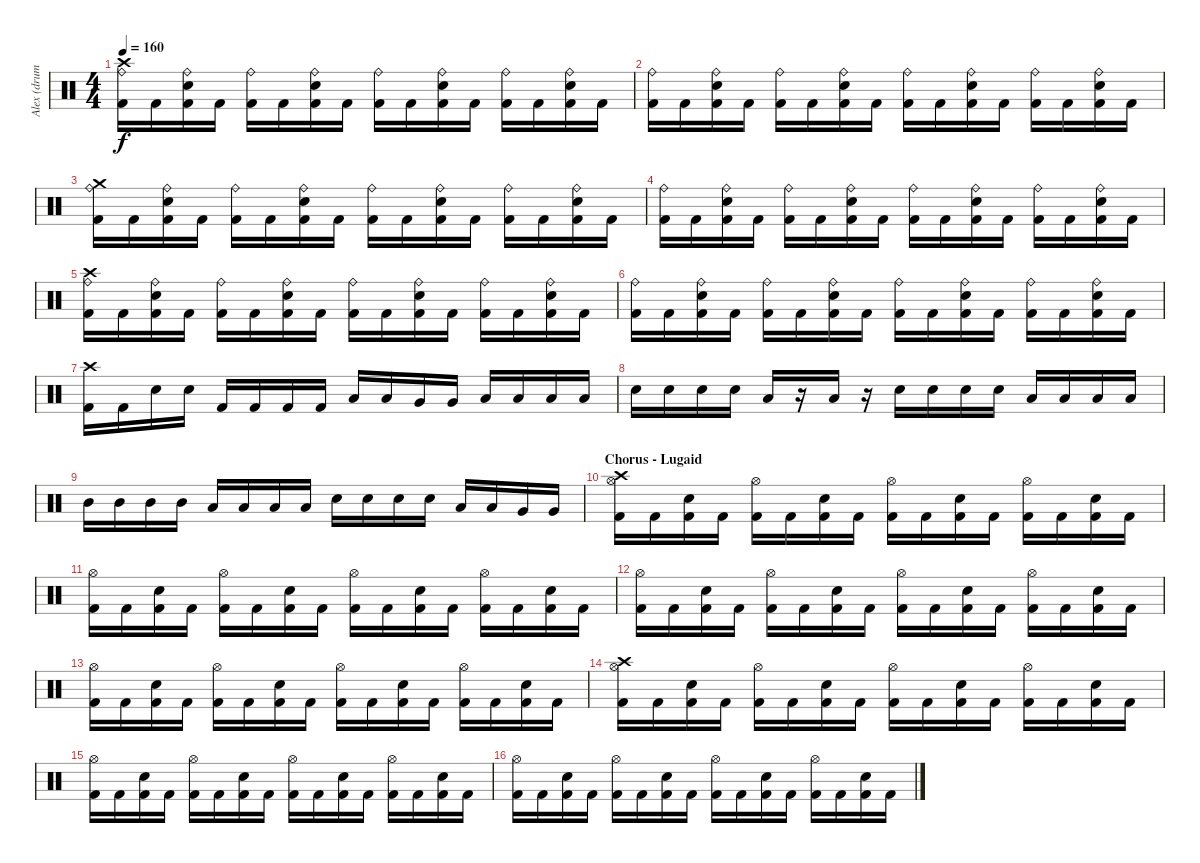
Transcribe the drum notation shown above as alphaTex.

\track ("Alex (drums)" "Alex (drum") {instrument percussion}
\staff {score}
\articulation defaults
\ts (4 4)
\tempo 160
\clef neutral
\ks c
("Ride (bell)" "Kick (hit) 2" "Crash high (hit)").16{dy f} "Kick (hit) 2".16 ("Ride (bell)" "Snare (hit) 2" "Kick (hit) 2").16 "Kick (hit) 2".16 ("Ride (bell)" "Kick (hit) 2").16 "Kick (hit) 2".16 ("Ride (bell)" "Snare (hit) 2" "Kick (hit) 2").16 "Kick (hit) 2".16 ("Ride (bell)" "Kick (hit) 2").16 "Kick (hit) 2".16 ("Ride (bell)" "Snare (hit) 2" "Kick (hit) 2").16 "Kick (hit) 2".16 ("Ride (bell)" "Kick (hit) 2").16 "Kick (hit) 2".16 ("Ride (bell)" "Snare (hit) 2" "Kick (hit) 2").16 "Kick (hit) 2".16 |
("Ride (bell)" "Kick (hit) 2").16 "Kick (hit) 2".16 ("Ride (bell)" "Snare (hit) 2" "Kick (hit) 2").16 "Kick (hit) 2".16 ("Ride (bell)" "Kick (hit) 2").16 "Kick (hit) 2".16 ("Ride (bell)" "Snare (hit) 2" "Kick (hit) 2").16 "Kick (hit) 2".16 ("Ride (bell)" "Kick (hit) 2").16 "Kick (hit) 2".16 ("Ride (bell)" "Snare (hit) 2" "Kick (hit) 2").16 "Kick (hit) 2".16 ("Ride (bell)" "Kick (hit) 2").16 "Kick (hit) 2".16 ("Ride (bell)" "Snare (hit) 2" "Kick (hit) 2").16 "Kick (hit) 2".16 |
("Ride (bell)" "Kick (hit) 2" "Crash medium (hit)").16 "Kick (hit) 2".16 ("Ride (bell)" "Snare (hit) 2" "Kick (hit) 2").16 "Kick (hit) 2".16 ("Ride (bell)" "Kick (hit) 2").16 "Kick (hit) 2".16 ("Ride (bell)" "Snare (hit) 2" "Kick (hit) 2").16 "Kick (hit) 2".16 ("Ride (bell)" "Kick (hit) 2").16 "Kick (hit) 2".16 ("Ride (bell)" "Snare (hit) 2" "Kick (hit) 2").16 "Kick (hit) 2".16 ("Ride (bell)" "Kick (hit) 2").16 "Kick (hit) 2".16 ("Ride (bell)" "Snare (hit) 2" "Kick (hit) 2").16 "Kick (hit) 2".16 |
("Ride (bell)" "Kick (hit) 2").16 "Kick (hit) 2".16 ("Ride (bell)" "Snare (hit) 2" "Kick (hit) 2").16 "Kick (hit) 2".16 ("Ride (bell)" "Kick (hit) 2").16 "Kick (hit) 2".16 ("Ride (bell)" "Snare (hit) 2" "Kick (hit) 2").16 "Kick (hit) 2".16 ("Ride (bell)" "Kick (hit) 2").16 "Kick (hit) 2".16 ("Ride (bell)" "Snare (hit) 2" "Kick (hit) 2").16 "Kick (hit) 2".16 ("Ride (bell)" "Kick (hit) 2").16 "Kick (hit) 2".16 ("Ride (bell)" "Snare (hit) 2" "Kick (hit) 2").16 "Kick (hit) 2".16 |
("Ride (bell)" "Kick (hit) 2" "Crash high (hit)").16 "Kick (hit) 2".16 ("Ride (bell)" "Snare (hit) 2" "Kick (hit) 2").16 "Kick (hit) 2".16 ("Ride (bell)" "Kick (hit) 2").16 "Kick (hit) 2".16 ("Ride (bell)" "Snare (hit) 2" "Kick (hit) 2").16 "Kick (hit) 2".16 ("Ride (bell)" "Kick (hit) 2").16 "Kick (hit) 2".16 ("Ride (bell)" "Snare (hit) 2" "Kick (hit) 2").16 "Kick (hit) 2".16 ("Ride (bell)" "Kick (hit) 2").16 "Kick (hit) 2".16 ("Ride (bell)" "Snare (hit) 2" "Kick (hit) 2").16 "Kick (hit) 2".16 |
("Ride (bell)" "Kick (hit) 2").16 "Kick (hit) 2".16 ("Ride (bell)" "Snare (hit) 2" "Kick (hit) 2").16 "Kick (hit) 2".16 ("Ride (bell)" "Kick (hit) 2").16 "Kick (hit) 2".16 ("Ride (bell)" "Snare (hit) 2" "Kick (hit) 2").16 "Kick (hit) 2".16 ("Ride (bell)" "Kick (hit) 2").16 "Kick (hit) 2".16 ("Ride (bell)" "Snare (hit) 2" "Kick (hit) 2").16 "Kick (hit) 2".16 ("Ride (bell)" "Kick (hit) 2").16 "Kick (hit) 2".16 ("Ride (bell)" "Snare (hit) 2" "Kick (hit) 2").16 "Kick (hit) 2".16 |
("Kick (hit) 2" "Crash high (hit)").16 "Kick (hit) 2".16 "Snare (hit) 2".16 "Snare (hit) 2".16 "Kick (hit) 2".16 "Kick (hit) 2".16 "Kick (hit) 2".16 "Kick (hit) 2".16 "Low Tom (hit)".16 "Low Tom (hit)".16 "Very Low Tom (hit)".16 "Very Low Tom (hit)".16 "Low Tom (hit)".16 "Low Tom (hit)".16 "Low Tom (hit)".16 "Low Tom (hit)".16 |
"Snare (hit) 2".16 "Snare (hit) 2".16 "Snare (hit) 2".16 "Snare (hit) 2".16 "Low Tom (hit)".16 r.16 "Low Tom (hit)".16 r.16 "Snare (hit) 2".16 "Snare (hit) 2".16 "Snare (hit) 2".16 "Snare (hit) 2".16 "Low Tom (hit)".16 "Low Tom (hit)".16 "Low Tom (hit)".16 "Low Tom (hit)".16 |
"Mid Tom (hit)".16 "Mid Tom (hit)".16 "Mid Tom (hit)".16 "Mid Tom (hit)".16 "Low Tom (hit)".16 "Low Tom (hit)".16 "Low Tom (hit)".16 "Low Tom (hit)".16 "Snare (hit) 2".16 "Snare (hit) 2".16 "Snare (hit) 2".16 "Snare (hit) 2".16 "Low Tom (hit)".16 "Low Tom (hit)".16 "Very Low Tom (hit)".16 "Very Low Tom (hit)".16 |
\section ("" "Chorus - Lugaid")
("Hi-Hat (open)" "Kick (hit) 2" "Crash high (hit)").16 "Kick (hit) 2".16 ("Snare (hit) 2" "Kick (hit) 2").16 "Kick (hit) 2".16 ("Hi-Hat (open)" "Kick (hit) 2").16 "Kick (hit) 2".16 ("Snare (hit) 2" "Kick (hit) 2").16 "Kick (hit) 2".16 ("Hi-Hat (open)" "Kick (hit) 2").16 "Kick (hit) 2".16 ("Snare (hit) 2" "Kick (hit) 2").16 "Kick (hit) 2".16 ("Hi-Hat (open)" "Kick (hit) 2").16 "Kick (hit) 2".16 ("Snare (hit) 2" "Kick (hit) 2").16 "Kick (hit) 2".16 |
("Hi-Hat (open)" "Kick (hit) 2").16 "Kick (hit) 2".16 ("Snare (hit) 2" "Kick (hit) 2").16 "Kick (hit) 2".16 ("Hi-Hat (open)" "Kick (hit) 2").16 "Kick (hit) 2".16 ("Snare (hit) 2" "Kick (hit) 2").16 "Kick (hit) 2".16 ("Hi-Hat (open)" "Kick (hit) 2").16 "Kick (hit) 2".16 ("Snare (hit) 2" "Kick (hit) 2").16 "Kick (hit) 2".16 ("Hi-Hat (open)" "Kick (hit) 2").16 "Kick (hit) 2".16 ("Snare (hit) 2" "Kick (hit) 2").16 "Kick (hit) 2".16 |
("Hi-Hat (open)" "Kick (hit) 2").16 "Kick (hit) 2".16 ("Snare (hit) 2" "Kick (hit) 2").16 "Kick (hit) 2".16 ("Hi-Hat (open)" "Kick (hit) 2").16 "Kick (hit) 2".16 ("Snare (hit) 2" "Kick (hit) 2").16 "Kick (hit) 2".16 ("Hi-Hat (open)" "Kick (hit) 2").16 "Kick (hit) 2".16 ("Snare (hit) 2" "Kick (hit) 2").16 "Kick (hit) 2".16 ("Hi-Hat (open)" "Kick (hit) 2").16 "Kick (hit) 2".16 ("Snare (hit) 2" "Kick (hit) 2").16 "Kick (hit) 2".16 |
("Hi-Hat (open)" "Kick (hit) 2").16 "Kick (hit) 2".16 ("Snare (hit) 2" "Kick (hit) 2").16 "Kick (hit) 2".16 ("Hi-Hat (open)" "Kick (hit) 2").16 "Kick (hit) 2".16 ("Snare (hit) 2" "Kick (hit) 2").16 "Kick (hit) 2".16 ("Hi-Hat (open)" "Kick (hit) 2").16 "Kick (hit) 2".16 ("Snare (hit) 2" "Kick (hit) 2").16 "Kick (hit) 2".16 ("Hi-Hat (open)" "Kick (hit) 2").16 "Kick (hit) 2".16 ("Snare (hit) 2" "Kick (hit) 2").16 "Kick (hit) 2".16 |
("Hi-Hat (open)" "Kick (hit) 2" "Crash high (hit)").16 "Kick (hit) 2".16 ("Snare (hit) 2" "Kick (hit) 2").16 "Kick (hit) 2".16 ("Hi-Hat (open)" "Kick (hit) 2").16 "Kick (hit) 2".16 ("Snare (hit) 2" "Kick (hit) 2").16 "Kick (hit) 2".16 ("Hi-Hat (open)" "Kick (hit) 2").16 "Kick (hit) 2".16 ("Snare (hit) 2" "Kick (hit) 2").16 "Kick (hit) 2".16 ("Hi-Hat (open)" "Kick (hit) 2").16 "Kick (hit) 2".16 ("Snare (hit) 2" "Kick (hit) 2").16 "Kick (hit) 2".16 |
("Hi-Hat (open)" "Kick (hit) 2").16 "Kick (hit) 2".16 ("Snare (hit) 2" "Kick (hit) 2").16 "Kick (hit) 2".16 ("Hi-Hat (open)" "Kick (hit) 2").16 "Kick (hit) 2".16 ("Snare (hit) 2" "Kick (hit) 2").16 "Kick (hit) 2".16 ("Hi-Hat (open)" "Kick (hit) 2").16 "Kick (hit) 2".16 ("Snare (hit) 2" "Kick (hit) 2").16 "Kick (hit) 2".16 ("Hi-Hat (open)" "Kick (hit) 2").16 "Kick (hit) 2".16 ("Snare (hit) 2" "Kick (hit) 2").16 "Kick (hit) 2".16 |
("Hi-Hat (open)" "Kick (hit) 2").16 "Kick (hit) 2".16 ("Snare (hit) 2" "Kick (hit) 2").16 "Kick (hit) 2".16 ("Hi-Hat (open)" "Kick (hit) 2").16 "Kick (hit) 2".16 ("Snare (hit) 2" "Kick (hit) 2").16 "Kick (hit) 2".16 ("Hi-Hat (open)" "Kick (hit) 2").16 "Kick (hit) 2".16 ("Snare (hit) 2" "Kick (hit) 2").16 "Kick (hit) 2".16 ("Hi-Hat (open)" "Kick (hit) 2").16 "Kick (hit) 2".16 ("Snare (hit) 2" "Kick (hit) 2").16 "Kick (hit) 2".16
